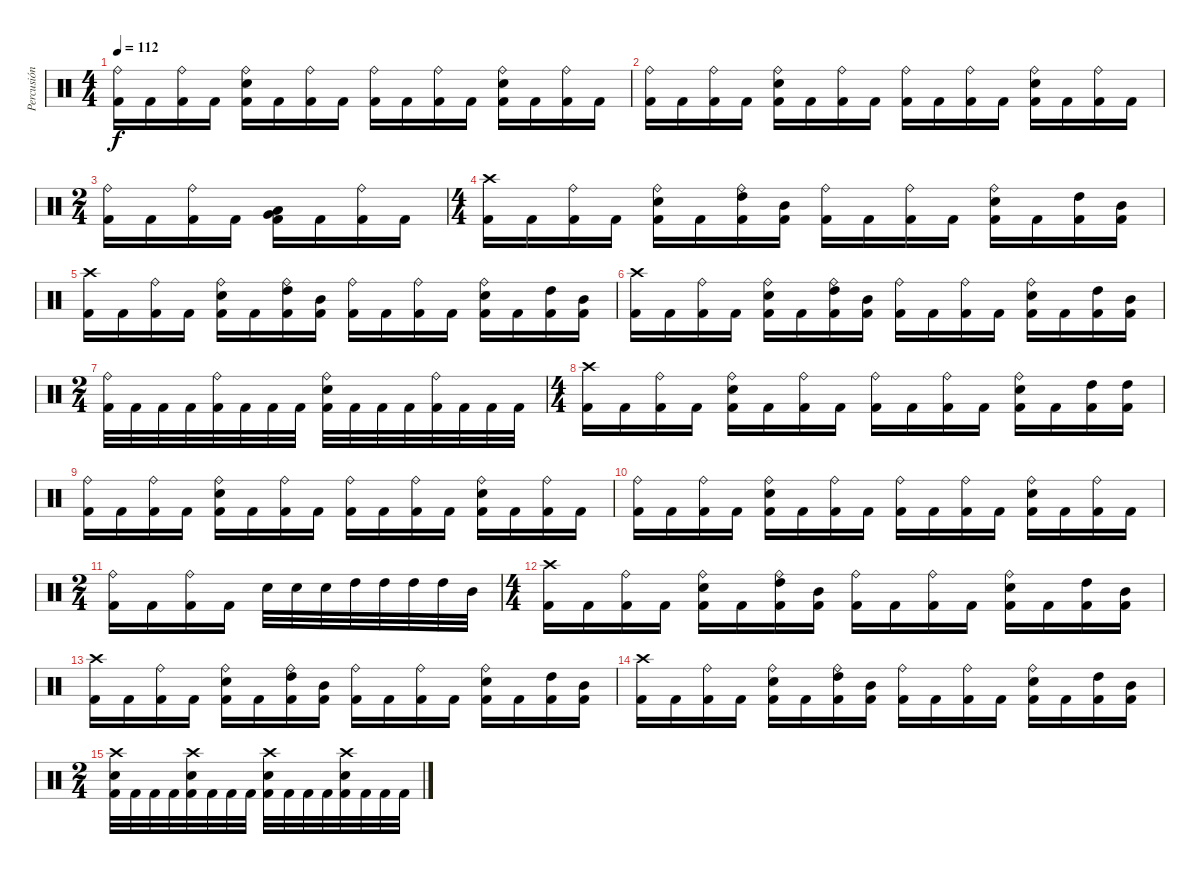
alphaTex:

\track ("Percusión" "Percusión") {instrument percussion}
\staff {score}
\articulation defaults
\ts (4 4)
\tempo 112
\clef neutral
\ks c
("Ride (bell)" "Kick (hit) 2").16{dy f} "Kick (hit) 2".16 ("Ride (bell)" "Kick (hit) 2").16 "Kick (hit) 2".16 ("Ride (bell)" "Snare (hit) 2" "Kick (hit) 2").16 "Kick (hit) 2".16 ("Ride (bell)" "Kick (hit) 2").16 "Kick (hit) 2".16 ("Ride (bell)" "Kick (hit) 2").16 "Kick (hit) 2".16 ("Ride (bell)" "Kick (hit) 2").16 "Kick (hit) 2".16 ("Ride (bell)" "Snare (hit) 2" "Kick (hit) 2").16 "Kick (hit) 2".16 ("Ride (bell)" "Kick (hit) 2").16 "Kick (hit) 2".16 |
("Ride (bell)" "Kick (hit) 2").16 "Kick (hit) 2".16 ("Ride (bell)" "Kick (hit) 2").16 "Kick (hit) 2".16 ("Ride (bell)" "Snare (hit) 2" "Kick (hit) 2").16 "Kick (hit) 2".16 ("Ride (bell)" "Kick (hit) 2").16 "Kick (hit) 2".16 ("Ride (bell)" "Kick (hit) 2").16 "Kick (hit) 2".16 ("Ride (bell)" "Kick (hit) 2").16 "Kick (hit) 2".16 ("Ride (bell)" "Snare (hit) 2" "Kick (hit) 2").16 "Kick (hit) 2".16 ("Ride (bell)" "Kick (hit) 2").16 "Kick (hit) 2".16 |
\ts (2 4)
("Ride (bell)" "Kick (hit) 2").16 "Kick (hit) 2".16 ("Ride (bell)" "Kick (hit) 2").16 "Kick (hit) 2".16 ("Very Low Tom (hit)" "Low Tom (hit)" "Kick (hit) 2").16 "Kick (hit) 2".16 ("Ride (bell)" "Kick (hit) 2").16 "Kick (hit) 2".16 |
\ts (4 4)
("Crash high (hit)" "Kick (hit) 2").16 "Kick (hit) 2".16 ("Ride (bell)" "Kick (hit) 2").16 "Kick (hit) 2".16 ("Ride (bell)" "Snare (hit) 2" "Kick (hit) 2").16 "Kick (hit) 2".16 ("Ride (bell)" "High Tom (hit)" "Kick (hit) 2").16 ("Mid Tom (hit)" "Kick (hit) 2").16 ("Ride (bell)" "Kick (hit) 2").16 "Kick (hit) 2".16 ("Ride (bell)" "Kick (hit) 2").16 "Kick (hit) 2".16 ("Ride (bell)" "Snare (hit) 2" "Kick (hit) 2").16 "Kick (hit) 2".16 ("High Tom (hit)" "Kick (hit) 2").16 ("Mid Tom (hit)" "Kick (hit) 2").16 |
("Crash high (hit)" "Kick (hit) 2").16 "Kick (hit) 2".16 ("Ride (bell)" "Kick (hit) 2").16 "Kick (hit) 2".16 ("Ride (bell)" "Snare (hit) 2" "Kick (hit) 2").16 "Kick (hit) 2".16 ("Ride (bell)" "High Tom (hit)" "Kick (hit) 2").16 ("Mid Tom (hit)" "Kick (hit) 2").16 ("Ride (bell)" "Kick (hit) 2").16 "Kick (hit) 2".16 ("Ride (bell)" "Kick (hit) 2").16 "Kick (hit) 2".16 ("Ride (bell)" "Snare (hit) 2" "Kick (hit) 2").16 "Kick (hit) 2".16 ("High Tom (hit)" "Kick (hit) 2").16 ("Mid Tom (hit)" "Kick (hit) 2").16 |
("Crash high (hit)" "Kick (hit) 2").16 "Kick (hit) 2".16 ("Ride (bell)" "Kick (hit) 2").16 "Kick (hit) 2".16 ("Ride (bell)" "Snare (hit) 2" "Kick (hit) 2").16 "Kick (hit) 2".16 ("Ride (bell)" "High Tom (hit)" "Kick (hit) 2").16 ("Mid Tom (hit)" "Kick (hit) 2").16 ("Ride (bell)" "Kick (hit) 2").16 "Kick (hit) 2".16 ("Ride (bell)" "Kick (hit) 2").16 "Kick (hit) 2".16 ("Ride (bell)" "Snare (hit) 2" "Kick (hit) 2").16 "Kick (hit) 2".16 ("High Tom (hit)" "Kick (hit) 2").16 ("Mid Tom (hit)" "Kick (hit) 2").16 |
\ts (2 4)
("Ride (bell)" "Kick (hit) 2").32 "Kick (hit) 2".32 "Kick (hit) 2".32 "Kick (hit) 2".32 ("Ride (bell)" "Kick (hit) 2").32 "Kick (hit) 2".32 "Kick (hit) 2".32 "Kick (hit) 2".32 ("Ride (bell)" "Snare (hit) 2" "Kick (hit) 2").32 "Kick (hit) 2".32 "Kick (hit) 2".32 "Kick (hit) 2".32 ("Ride (bell)" "Kick (hit) 2").32 "Kick (hit) 2".32 "Kick (hit) 2".32 "Kick (hit) 2".32 |
\ts (4 4)
("Crash high (hit)" "Kick (hit) 2").16 "Kick (hit) 2".16 ("Ride (bell)" "Kick (hit) 2").16 "Kick (hit) 2".16 ("Ride (bell)" "Snare (hit) 2" "Kick (hit) 2").16 "Kick (hit) 2".16 ("Ride (bell)" "Kick (hit) 2").16 "Kick (hit) 2".16 ("Ride (bell)" "Kick (hit) 2").16 "Kick (hit) 2".16 ("Ride (bell)" "Kick (hit) 2").16 "Kick (hit) 2".16 ("Ride (bell)" "Snare (hit) 2" "Kick (hit) 2").16 "Kick (hit) 2".16 ("High Tom (hit)" "Kick (hit) 2").16 ("High Tom (hit)" "Kick (hit) 2").16 |
("Ride (bell)" "Kick (hit) 2").16 "Kick (hit) 2".16 ("Ride (bell)" "Kick (hit) 2").16 "Kick (hit) 2".16 ("Ride (bell)" "Snare (hit) 2" "Kick (hit) 2").16 "Kick (hit) 2".16 ("Ride (bell)" "Kick (hit) 2").16 "Kick (hit) 2".16 ("Ride (bell)" "Kick (hit) 2").16 "Kick (hit) 2".16 ("Ride (bell)" "Kick (hit) 2").16 "Kick (hit) 2".16 ("Ride (bell)" "Snare (hit) 2" "Kick (hit) 2").16 "Kick (hit) 2".16 ("Ride (bell)" "Kick (hit) 2").16 "Kick (hit) 2".16 |
("Ride (bell)" "Kick (hit) 2").16 "Kick (hit) 2".16 ("Ride (bell)" "Kick (hit) 2").16 "Kick (hit) 2".16 ("Ride (bell)" "Snare (hit) 2" "Kick (hit) 2").16 "Kick (hit) 2".16 ("Ride (bell)" "Kick (hit) 2").16 "Kick (hit) 2".16 ("Ride (bell)" "Kick (hit) 2").16 "Kick (hit) 2".16 ("Ride (bell)" "Kick (hit) 2").16 "Kick (hit) 2".16 ("Ride (bell)" "Snare (hit) 2" "Kick (hit) 2").16 "Kick (hit) 2".16 ("Ride (bell)" "Kick (hit) 2").16 "Kick (hit) 2".16 |
\ts (2 4)
("Ride (bell)" "Kick (hit) 2").16 "Kick (hit) 2".16 ("Ride (bell)" "Kick (hit) 2").16 "Kick (hit) 2".16 "Snare (hit) 2".32 "Snare (hit) 2".32 "Snare (hit) 2".32 "High Tom (hit)".32 "High Tom (hit)".32 "High Tom (hit)".32 "High Tom (hit)".32 "Mid Tom (hit)".32 |
\ts (4 4)
("Crash high (hit)" "Kick (hit) 2").16 "Kick (hit) 2".16 ("Ride (bell)" "Kick (hit) 2").16 "Kick (hit) 2".16 ("Ride (bell)" "Snare (hit) 2" "Kick (hit) 2").16 "Kick (hit) 2".16 ("Ride (bell)" "High Tom (hit)" "Kick (hit) 2").16 ("Mid Tom (hit)" "Kick (hit) 2").16 ("Ride (bell)" "Kick (hit) 2").16 "Kick (hit) 2".16 ("Ride (bell)" "Kick (hit) 2").16 "Kick (hit) 2".16 ("Ride (bell)" "Snare (hit) 2" "Kick (hit) 2").16 "Kick (hit) 2".16 ("High Tom (hit)" "Kick (hit) 2").16 ("Mid Tom (hit)" "Kick (hit) 2").16 |
("Crash high (hit)" "Kick (hit) 2").16 "Kick (hit) 2".16 ("Ride (bell)" "Kick (hit) 2").16 "Kick (hit) 2".16 ("Ride (bell)" "Snare (hit) 2" "Kick (hit) 2").16 "Kick (hit) 2".16 ("Ride (bell)" "High Tom (hit)" "Kick (hit) 2").16 ("Mid Tom (hit)" "Kick (hit) 2").16 ("Ride (bell)" "Kick (hit) 2").16 "Kick (hit) 2".16 ("Ride (bell)" "Kick (hit) 2").16 "Kick (hit) 2".16 ("Ride (bell)" "Snare (hit) 2" "Kick (hit) 2").16 "Kick (hit) 2".16 ("High Tom (hit)" "Kick (hit) 2").16 ("Mid Tom (hit)" "Kick (hit) 2").16 |
("Crash high (hit)" "Kick (hit) 2").16 "Kick (hit) 2".16 ("Ride (bell)" "Kick (hit) 2").16 "Kick (hit) 2".16 ("Ride (bell)" "Snare (hit) 2" "Kick (hit) 2").16 "Kick (hit) 2".16 ("Ride (bell)" "High Tom (hit)" "Kick (hit) 2").16 ("Mid Tom (hit)" "Kick (hit) 2").16 ("Ride (bell)" "Kick (hit) 2").16 "Kick (hit) 2".16 ("Ride (bell)" "Kick (hit) 2").16 "Kick (hit) 2".16 ("Ride (bell)" "Snare (hit) 2" "Kick (hit) 2").16 "Kick (hit) 2".16 ("High Tom (hit)" "Kick (hit) 2").16 ("Mid Tom (hit)" "Kick (hit) 2").16 |
\ts (2 4)
("Crash high (hit)" "Snare (hit) 2" "Kick (hit) 2").32 "Kick (hit) 2".32 "Kick (hit) 2".32 "Kick (hit) 2".32 ("Crash high (hit)" "Snare (hit) 2" "Kick (hit) 2").32 "Kick (hit) 2".32 "Kick (hit) 2".32 "Kick (hit) 2".32 ("Crash high (hit)" "Snare (hit) 2" "Kick (hit) 2").32 "Kick (hit) 2".32 "Kick (hit) 2".32 "Kick (hit) 2".32 ("Crash high (hit)" "Snare (hit) 2" "Kick (hit) 2").32 "Kick (hit) 2".32 "Kick (hit) 2".32 "Kick (hit) 2".32
